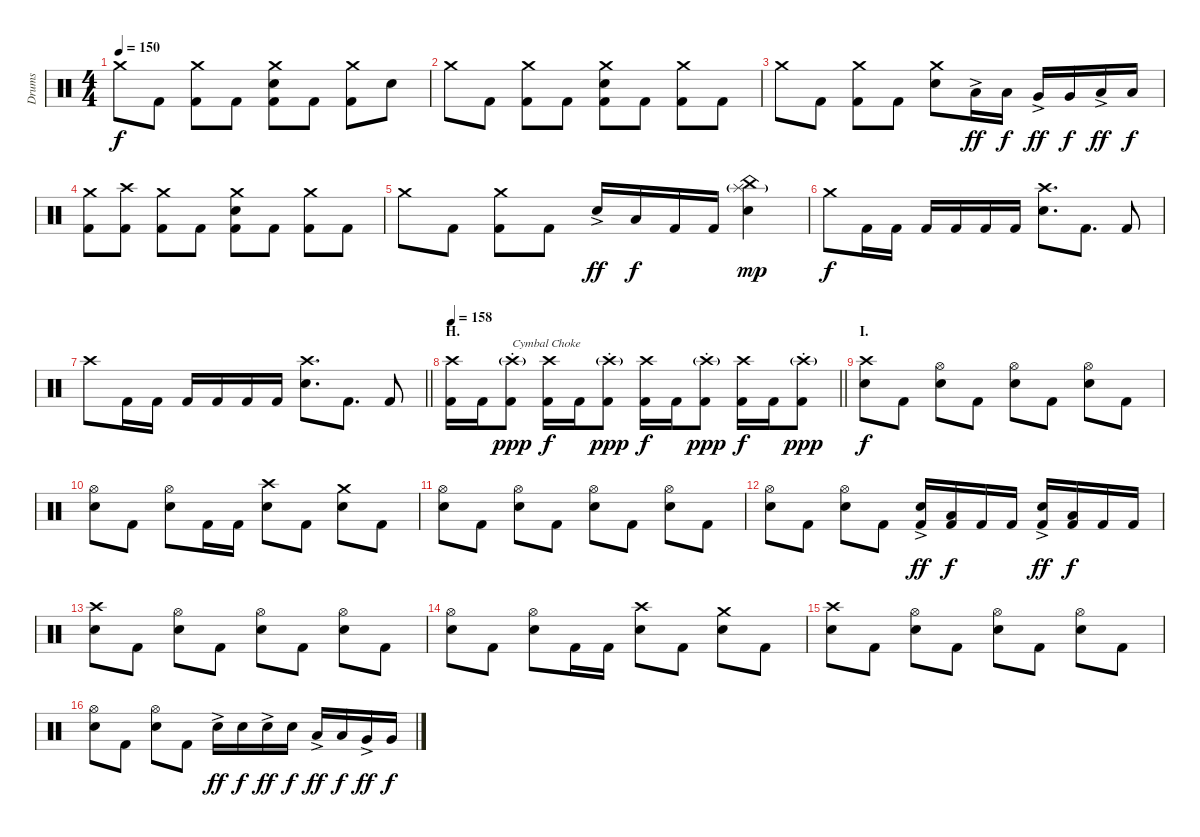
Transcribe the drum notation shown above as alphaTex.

\track ("Drums" "Drums") {instrument percussion}
\staff {score}
\articulation defaults
\ts (4 4)
\tempo 150
\clef neutral
\ks c "Crash medium (hit)".8{dy f} "Kick (hit) 2".8
("Crash medium (hit)" "Kick (hit) 2").8 "Kick (hit) 2".8 ("Crash medium (hit)" "Electric Snare (hit)" "Kick (hit) 2").8 "Kick (hit) 2".8 ("Crash medium (hit)" "Kick (hit) 2").8 "Electric Snare (hit)".8 |
"Crash medium (hit)".8 "Kick (hit) 2".8 ("Crash medium (hit)" "Kick (hit) 2").8 "Kick (hit) 2".8 ("Crash medium (hit)" "Electric Snare (hit)" "Kick (hit) 2").8 "Kick (hit) 2".8 ("Crash medium (hit)" "Kick (hit) 2").8 "Kick (hit) 2".8 |
"Crash medium (hit)".8 "Kick (hit) 2".8 ("Crash medium (hit)" "Kick (hit) 2").8 "Kick (hit) 2".8 ("Crash medium (hit)" "Electric Snare (hit)").8 "Low Tom (hit)"{ac}.16{dy ff} "Low Tom (hit)".16{dy f} "Very Low Tom (hit)"{ac}.16{dy ff} "Very Low Tom (hit)".16{dy f} "Low Floor Tom (hit)"{ac}.16{dy ff} "Low Floor Tom (hit)".16{dy f} |
("Crash medium (hit)" "Kick (hit) 2").8 ("Crash high (hit)" "Kick (hit) 2").8 ("Crash medium (hit)" "Kick (hit) 2").8 "Kick (hit) 2".8 ("Crash medium (hit)" "Electric Snare (hit)" "Kick (hit) 2").8 "Kick (hit) 2".8 ("Crash medium (hit)" "Kick (hit) 2").8 "Kick (hit) 2".8 |
"Crash medium (hit)".8 "Kick (hit) 2".8 ("Crash medium (hit)" "Kick (hit) 2").8 "Kick (hit) 2".8 "Electric Snare (hit)"{ac}.16{dy ff} "Low Tom (hit)".16{dy f} "Kick (hit) 2".16 "Kick (hit) 2".16 ("China (hit)" "Splash (hit)"{g} "Electric Snare (hit)").4{dy mp} |
"Crash medium (hit)".8{dy f} "Kick (hit) 2".16 "Kick (hit) 2".16 "Kick (hit) 2".16 "Kick (hit) 2".16 "Kick (hit) 2".16 "Kick (hit) 2".16 ("Crash high (hit)" "Electric Snare (hit)").8{d} "Kick (hit) 2".8{d} "Kick (hit) 2".8 |
\barLineRight lightlight "Crash high (hit)".8 "Kick (hit) 2".16 "Kick (hit) 2".16 "Kick (hit) 2".16 "Kick (hit) 2".16 "Kick (hit) 2".16 "Kick (hit) 2".16
("Crash high (hit)" "Electric Snare (hit)").8{d} "Kick (hit) 2".8{d} "Kick (hit) 2".8 |
\section ("" "H.")
\tempo 158
\barLineRight lightlight
("Crash high (hit)" "Kick (hit) 2").16 "Kick (hit) 2".16 ("Crash high (hit)"{g st} "Kick (hit) 2").8{txt "Cymbal Choke" dy ppp} ("Crash high (hit)" "Kick (hit) 2").16{dy f} "Kick (hit) 2".16 ("Crash high (hit)"{g st} "Kick (hit) 2").8{dy ppp} ("Crash high (hit)" "Kick (hit) 2").16{dy f} "Kick (hit) 2".16 ("Crash high (hit)"{g st} "Kick (hit) 2").8{dy ppp} ("Crash high (hit)" "Kick (hit) 2").16{dy f} "Kick (hit) 2".16 ("Crash high (hit)"{g st} "Kick (hit) 2").8{dy ppp} |
\section ("" "I.")
("Crash high (hit)" "Electric Snare (hit)").8{dy f} "Kick (hit) 2".8 ("Hi-Hat (open)" "Electric Snare (hit)").8 "Kick (hit) 2".8 ("Hi-Hat (open)" "Electric Snare (hit)").8 "Kick (hit) 2".8 ("Hi-Hat (open)" "Electric Snare (hit)").8 "Kick (hit) 2".8 |
("Hi-Hat (open)" "Electric Snare (hit)").8 "Kick (hit) 2".8 ("Hi-Hat (open)" "Electric Snare (hit)").8 "Kick (hit) 2".16 "Kick (hit) 2".16 ("Crash high (hit)" "Electric Snare (hit)").8 "Kick (hit) 2".8 ("Crash medium (hit)" "Electric Snare (hit)").8 "Kick (hit) 2".8 |
("Hi-Hat (open)" "Electric Snare (hit)").8 "Kick (hit) 2".8 ("Hi-Hat (open)" "Electric Snare (hit)").8 "Kick (hit) 2".8 ("Hi-Hat (open)" "Electric Snare (hit)").8 "Kick (hit) 2".8 ("Hi-Hat (open)" "Electric Snare (hit)").8 "Kick (hit) 2".8 |
("Hi-Hat (open)" "Electric Snare (hit)").8 "Kick (hit) 2".8 ("Hi-Hat (open)" "Electric Snare (hit)").8 "Kick (hit) 2".8 ("Electric Snare (hit)"{ac} "Kick (hit) 2").16{dy ff} ("Low Tom (hit)" "Kick (hit) 2").16{dy f} "Kick (hit) 2".16 "Kick (hit) 2".16 ("Electric Snare (hit)"{ac} "Kick (hit) 2").16{dy ff} ("Low Tom (hit)" "Kick (hit) 2").16{dy f} "Kick (hit) 2".16 "Kick (hit) 2".16 |
("Crash high (hit)" "Electric Snare (hit)").8 "Kick (hit) 2".8 ("Hi-Hat (open)" "Electric Snare (hit)").8 "Kick (hit) 2".8 ("Hi-Hat (open)" "Electric Snare (hit)").8 "Kick (hit) 2".8 ("Hi-Hat (open)" "Electric Snare (hit)").8 "Kick (hit) 2".8 |
("Hi-Hat (open)" "Electric Snare (hit)").8 "Kick (hit) 2".8 ("Hi-Hat (open)" "Electric Snare (hit)").8 "Kick (hit) 2".16 "Kick (hit) 2".16 ("Crash high (hit)" "Electric Snare (hit)").8 "Kick (hit) 2".8 ("Crash medium (hit)" "Electric Snare (hit)").8 "Kick (hit) 2".8 |
("Crash high (hit)" "Electric Snare (hit)").8 "Kick (hit) 2".8 ("Hi-Hat (open)" "Electric Snare (hit)").8 "Kick (hit) 2".8 ("Hi-Hat (open)" "Electric Snare (hit)").8 "Kick (hit) 2".8 ("Hi-Hat (open)" "Electric Snare (hit)").8 "Kick (hit) 2".8 |
("Hi-Hat (open)" "Electric Snare (hit)").8 "Kick (hit) 2".8 ("Hi-Hat (open)" "Electric Snare (hit)").8 "Kick (hit) 2".8 "Electric Snare (hit)"{ac}.16{dy ff} "Electric Snare (hit)".16{dy f} "Electric Snare (hit)"{ac}.16{dy ff} "Electric Snare (hit)".16{dy f} "Low Tom (hit)"{ac}.16{dy ff} "Low Tom (hit)".16{dy f} "Very Low Tom (hit)"{ac}.16{dy ff} "Very Low Tom (hit)".16{dy f}
